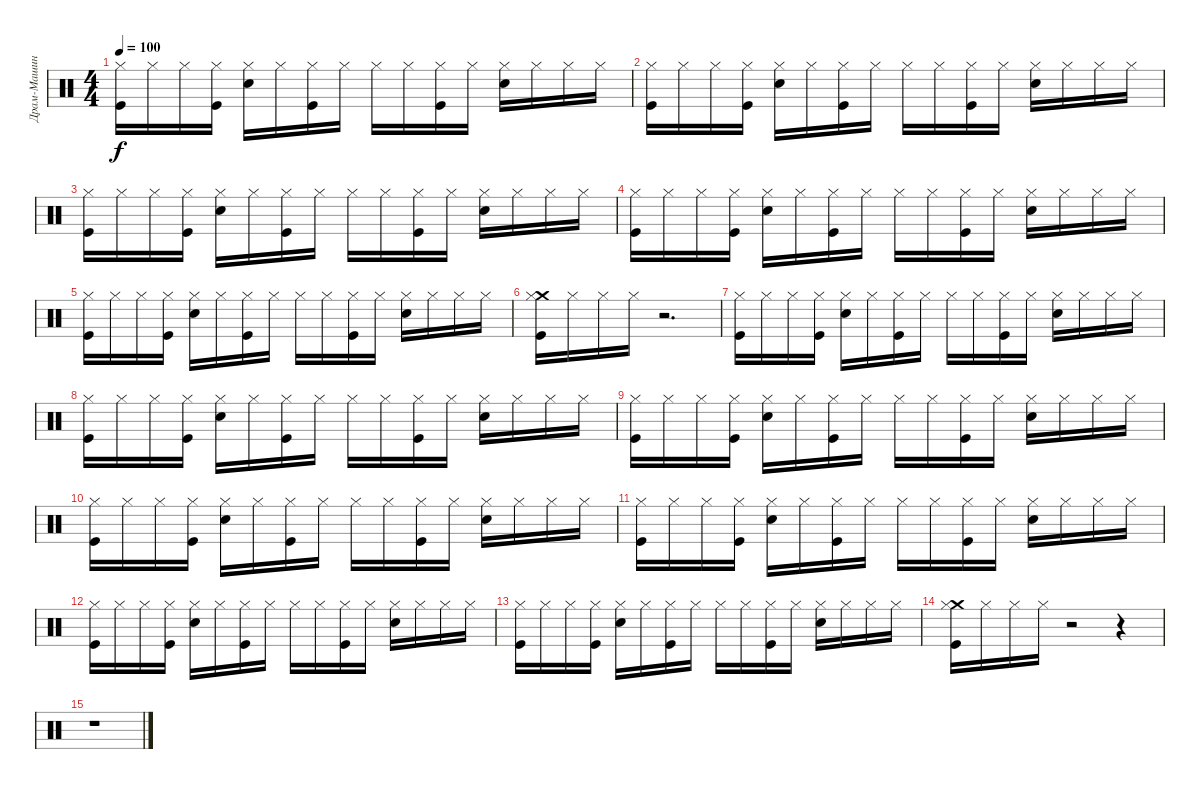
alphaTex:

\track ("Драм-Машина" "Драм-Машин") {instrument percussion}
\staff {score}
\articulation defaults
\ts (4 4)
\tempo 100
\clef neutral
\ks c
("Kick (hit)" "Hi-Hat (closed)").16{dy f} "Hi-Hat (closed)".16 "Hi-Hat (closed)".16 ("Kick (hit)" "Hi-Hat (closed)").16 ("Electric Snare (hit)" "Hi-Hat (closed)").16 "Hi-Hat (closed)".16 ("Kick (hit)" "Hi-Hat (closed)").16 "Hi-Hat (closed)".16 "Hi-Hat (closed)".16 "Hi-Hat (closed)".16 ("Kick (hit)" "Hi-Hat (closed)").16 "Hi-Hat (closed)".16 ("Electric Snare (hit)" "Hi-Hat (closed)").16 "Hi-Hat (closed)".16 "Hi-Hat (closed)".16 "Hi-Hat (closed)".16 |
("Kick (hit)" "Hi-Hat (closed)").16 "Hi-Hat (closed)".16 "Hi-Hat (closed)".16 ("Kick (hit)" "Hi-Hat (closed)").16 ("Electric Snare (hit)" "Hi-Hat (closed)").16 "Hi-Hat (closed)".16 ("Kick (hit)" "Hi-Hat (closed)").16 "Hi-Hat (closed)".16 "Hi-Hat (closed)".16 "Hi-Hat (closed)".16 ("Kick (hit)" "Hi-Hat (closed)").16 "Hi-Hat (closed)".16 ("Electric Snare (hit)" "Hi-Hat (closed)").16 "Hi-Hat (closed)".16 "Hi-Hat (closed)".16 "Hi-Hat (closed)".16 |
("Kick (hit)" "Hi-Hat (closed)").16 "Hi-Hat (closed)".16 "Hi-Hat (closed)".16 ("Kick (hit)" "Hi-Hat (closed)").16 ("Electric Snare (hit)" "Hi-Hat (closed)").16 "Hi-Hat (closed)".16 ("Kick (hit)" "Hi-Hat (closed)").16 "Hi-Hat (closed)".16 "Hi-Hat (closed)".16 "Hi-Hat (closed)".16 ("Kick (hit)" "Hi-Hat (closed)").16 "Hi-Hat (closed)".16 ("Electric Snare (hit)" "Hi-Hat (closed)").16 "Hi-Hat (closed)".16 "Hi-Hat (closed)".16 "Hi-Hat (closed)".16 |
("Kick (hit)" "Hi-Hat (closed)").16 "Hi-Hat (closed)".16 "Hi-Hat (closed)".16 ("Kick (hit)" "Hi-Hat (closed)").16 ("Electric Snare (hit)" "Hi-Hat (closed)").16 "Hi-Hat (closed)".16 ("Kick (hit)" "Hi-Hat (closed)").16 "Hi-Hat (closed)".16 "Hi-Hat (closed)".16 "Hi-Hat (closed)".16 ("Kick (hit)" "Hi-Hat (closed)").16 "Hi-Hat (closed)".16 ("Electric Snare (hit)" "Hi-Hat (closed)").16 "Hi-Hat (closed)".16 "Hi-Hat (closed)".16 "Hi-Hat (closed)".16 |
("Kick (hit)" "Hi-Hat (closed)").16 "Hi-Hat (closed)".16 "Hi-Hat (closed)".16 ("Kick (hit)" "Hi-Hat (closed)").16 ("Electric Snare (hit)" "Hi-Hat (closed)").16 "Hi-Hat (closed)".16 ("Kick (hit)" "Hi-Hat (closed)").16 "Hi-Hat (closed)".16 "Hi-Hat (closed)".16 "Hi-Hat (closed)".16 ("Kick (hit)" "Hi-Hat (closed)").16 "Hi-Hat (closed)".16 ("Electric Snare (hit)" "Hi-Hat (closed)").16 "Hi-Hat (closed)".16 "Hi-Hat (closed)".16 "Hi-Hat (closed)".16 |
("Crash medium (hit)" "Kick (hit)" "Hi-Hat (closed)").16 "Hi-Hat (closed)".16 "Hi-Hat (closed)".16 "Hi-Hat (closed)".16 r.2{d} |
("Kick (hit)" "Hi-Hat (closed)").16 "Hi-Hat (closed)".16 "Hi-Hat (closed)".16 ("Kick (hit)" "Hi-Hat (closed)").16 ("Electric Snare (hit)" "Hi-Hat (closed)").16 "Hi-Hat (closed)".16 ("Kick (hit)" "Hi-Hat (closed)").16 "Hi-Hat (closed)".16 "Hi-Hat (closed)".16 "Hi-Hat (closed)".16 ("Kick (hit)" "Hi-Hat (closed)").16 "Hi-Hat (closed)".16 ("Electric Snare (hit)" "Hi-Hat (closed)").16 "Hi-Hat (closed)".16 "Hi-Hat (closed)".16 "Hi-Hat (closed)".16 |
("Kick (hit)" "Hi-Hat (closed)").16 "Hi-Hat (closed)".16 "Hi-Hat (closed)".16 ("Kick (hit)" "Hi-Hat (closed)").16 ("Electric Snare (hit)" "Hi-Hat (closed)").16 "Hi-Hat (closed)".16 ("Kick (hit)" "Hi-Hat (closed)").16 "Hi-Hat (closed)".16 "Hi-Hat (closed)".16 "Hi-Hat (closed)".16 ("Kick (hit)" "Hi-Hat (closed)").16 "Hi-Hat (closed)".16 ("Electric Snare (hit)" "Hi-Hat (closed)").16 "Hi-Hat (closed)".16 "Hi-Hat (closed)".16 "Hi-Hat (closed)".16 |
("Kick (hit)" "Hi-Hat (closed)").16 "Hi-Hat (closed)".16 "Hi-Hat (closed)".16 ("Kick (hit)" "Hi-Hat (closed)").16 ("Electric Snare (hit)" "Hi-Hat (closed)").16 "Hi-Hat (closed)".16 ("Kick (hit)" "Hi-Hat (closed)").16 "Hi-Hat (closed)".16 "Hi-Hat (closed)".16 "Hi-Hat (closed)".16 ("Kick (hit)" "Hi-Hat (closed)").16 "Hi-Hat (closed)".16 ("Electric Snare (hit)" "Hi-Hat (closed)").16 "Hi-Hat (closed)".16 "Hi-Hat (closed)".16 "Hi-Hat (closed)".16 |
("Kick (hit)" "Hi-Hat (closed)").16 "Hi-Hat (closed)".16 "Hi-Hat (closed)".16 ("Kick (hit)" "Hi-Hat (closed)").16 ("Electric Snare (hit)" "Hi-Hat (closed)").16 "Hi-Hat (closed)".16 ("Kick (hit)" "Hi-Hat (closed)").16 "Hi-Hat (closed)".16 "Hi-Hat (closed)".16 "Hi-Hat (closed)".16 ("Kick (hit)" "Hi-Hat (closed)").16 "Hi-Hat (closed)".16 ("Electric Snare (hit)" "Hi-Hat (closed)").16 "Hi-Hat (closed)".16 "Hi-Hat (closed)".16 "Hi-Hat (closed)".16 |
("Kick (hit)" "Hi-Hat (closed)").16 "Hi-Hat (closed)".16 "Hi-Hat (closed)".16 ("Kick (hit)" "Hi-Hat (closed)").16 ("Electric Snare (hit)" "Hi-Hat (closed)").16 "Hi-Hat (closed)".16 ("Kick (hit)" "Hi-Hat (closed)").16 "Hi-Hat (closed)".16 "Hi-Hat (closed)".16 "Hi-Hat (closed)".16 ("Kick (hit)" "Hi-Hat (closed)").16 "Hi-Hat (closed)".16 ("Electric Snare (hit)" "Hi-Hat (closed)").16 "Hi-Hat (closed)".16 "Hi-Hat (closed)".16 "Hi-Hat (closed)".16 |
("Kick (hit)" "Hi-Hat (closed)").16 "Hi-Hat (closed)".16 "Hi-Hat (closed)".16 ("Kick (hit)" "Hi-Hat (closed)").16 ("Electric Snare (hit)" "Hi-Hat (closed)").16 "Hi-Hat (closed)".16 ("Kick (hit)" "Hi-Hat (closed)").16 "Hi-Hat (closed)".16 "Hi-Hat (closed)".16 "Hi-Hat (closed)".16 ("Kick (hit)" "Hi-Hat (closed)").16 "Hi-Hat (closed)".16 ("Electric Snare (hit)" "Hi-Hat (closed)").16 "Hi-Hat (closed)".16 "Hi-Hat (closed)".16 "Hi-Hat (closed)".16 |
("Kick (hit)" "Hi-Hat (closed)").16 "Hi-Hat (closed)".16 "Hi-Hat (closed)".16 ("Kick (hit)" "Hi-Hat (closed)").16 ("Electric Snare (hit)" "Hi-Hat (closed)").16 "Hi-Hat (closed)".16 ("Kick (hit)" "Hi-Hat (closed)").16 "Hi-Hat (closed)".16 "Hi-Hat (closed)".16 "Hi-Hat (closed)".16 ("Kick (hit)" "Hi-Hat (closed)").16 "Hi-Hat (closed)".16 ("Electric Snare (hit)" "Hi-Hat (closed)").16 "Hi-Hat (closed)".16 "Hi-Hat (closed)".16 "Hi-Hat (closed)".16 |
("Crash medium (hit)" "Kick (hit)" "Hi-Hat (closed)").16 "Hi-Hat (closed)".16 "Hi-Hat (closed)".16 "Hi-Hat (closed)".16 r.2 r.4 |
r.1
